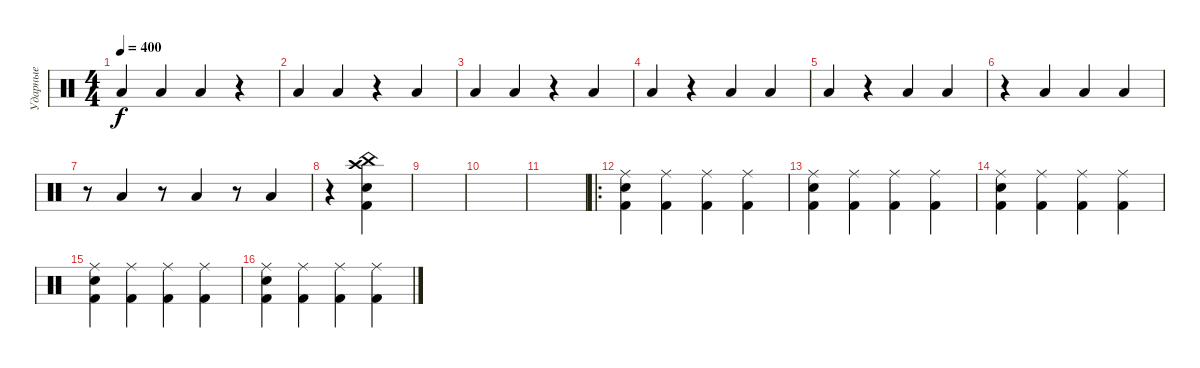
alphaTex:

\track ("Ударные" "Ударные") {instrument percussion}
\staff {score}
\articulation defaults
\ts (4 4)
\tempo 400
\clef neutral
\ks c "Low Floor Tom (hit)".4{dy f} "Low Floor Tom (hit)".4 "Low Floor Tom (hit)".4
r.4 |
"Low Floor Tom (hit)".4 "Low Floor Tom (hit)".4 r.4 "Low Floor Tom (hit)".4 |
"Low Floor Tom (hit)".4 "Low Floor Tom (hit)".4 r.4 "Low Floor Tom (hit)".4 |
"Low Floor Tom (hit)".4 r.4 "Low Floor Tom (hit)".4 "Low Floor Tom (hit)".4 |
"Low Floor Tom (hit)".4 r.4 "Low Floor Tom (hit)".4 "Low Floor Tom (hit)".4 |
r.4 "Low Floor Tom (hit)".4 "Low Floor Tom (hit)".4 "Low Floor Tom (hit)".4 |
r.8 "Low Floor Tom (hit)".4 r.8 "Low Floor Tom (hit)".4 r.8 "Low Floor Tom (hit)".4 |
r.4 ("Electric Snare (hit)" "Kick (hit) 2" "Crash high (hit)" "China (hit)").4 |
|
|
|
\ro
("Kick (hit) 2" "Electric Snare (hit)" "Ride (middle)").4 ("Kick (hit) 2" "Ride (middle)").4 ("Kick (hit) 2" "Ride (middle)").4 ("Kick (hit) 2" "Ride (middle)").4 |
("Kick (hit) 2" "Electric Snare (hit)" "Ride (middle)").4 ("Kick (hit) 2" "Ride (middle)").4 ("Kick (hit) 2" "Ride (middle)").4 ("Kick (hit) 2" "Ride (middle)").4 |
("Kick (hit) 2" "Electric Snare (hit)" "Ride (middle)").4 ("Kick (hit) 2" "Ride (middle)").4 ("Kick (hit) 2" "Ride (middle)").4 ("Kick (hit) 2" "Ride (middle)").4 |
("Kick (hit) 2" "Electric Snare (hit)" "Ride (middle)").4 ("Kick (hit) 2" "Ride (middle)").4 ("Kick (hit) 2" "Ride (middle)").4 ("Kick (hit) 2" "Ride (middle)").4 |
("Kick (hit) 2" "Electric Snare (hit)" "Ride (middle)").4 ("Kick (hit) 2" "Ride (middle)").4 ("Kick (hit) 2" "Ride (middle)").4 ("Kick (hit) 2" "Ride (middle)").4
